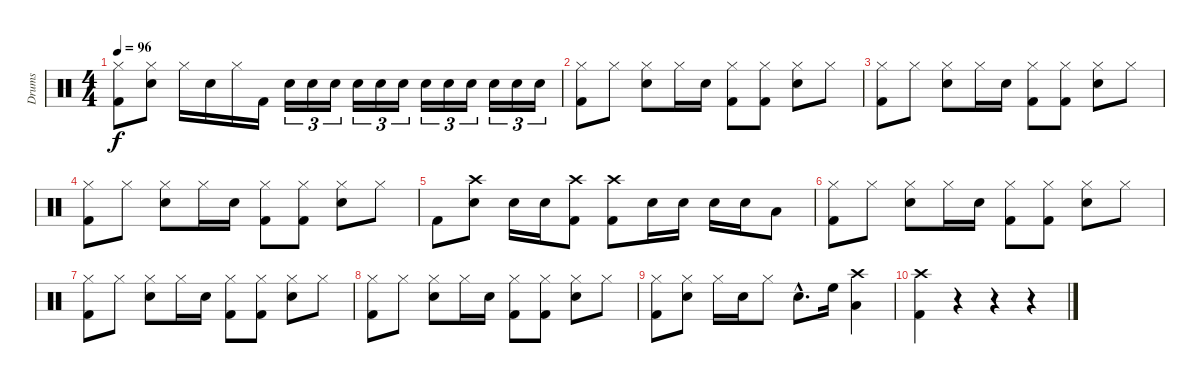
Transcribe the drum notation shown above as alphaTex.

\track ("Drums" "Drums") {instrument percussion}
\staff {score}
\articulation defaults
\ts (4 4)
\tempo 96
\clef neutral
\ks c
("Hi-Hat (closed)" "Kick (hit) 2").8{dy f} ("Hi-Hat (closed)" "Snare (hit) 2").8 "Hi-Hat (closed)".16 "Snare (hit) 2".16 "Hi-Hat (closed)".16 "Kick (hit) 2".16 "Snare (hit) 2".16{tu (3 2)} "Snare (hit) 2".16{tu (3 2)} "Snare (hit) 2".16{tu (3 2)} "Snare (hit) 2".16{tu (3 2)} "Snare (hit) 2".16{tu (3 2)} "Snare (hit) 2".16{tu (3 2)} "Snare (hit) 2".16{tu (3 2)} "Snare (hit) 2".16{tu (3 2)} "Snare (hit) 2".16{tu (3 2)} "Snare (hit) 2".16{tu (3 2)} "Snare (hit) 2".16{tu (3 2)} "Snare (hit) 2".16{tu (3 2)} |
("Hi-Hat (closed)" "Kick (hit) 2").8 "Hi-Hat (closed)".8 ("Hi-Hat (closed)" "Snare (hit) 2").8 "Hi-Hat (closed)".16 "Snare (hit) 2".16 ("Hi-Hat (closed)" "Kick (hit) 2").8 ("Hi-Hat (closed)" "Kick (hit) 2").8 ("Hi-Hat (closed)" "Snare (hit) 2").8 "Hi-Hat (closed)".8 |
("Hi-Hat (closed)" "Kick (hit) 2").8 "Hi-Hat (closed)".8 ("Hi-Hat (closed)" "Snare (hit) 2").8 "Hi-Hat (closed)".16 "Snare (hit) 2".16 ("Hi-Hat (closed)" "Kick (hit) 2").8 ("Hi-Hat (closed)" "Kick (hit) 2").8 ("Hi-Hat (closed)" "Snare (hit) 2").8 "Hi-Hat (closed)".8 |
("Hi-Hat (closed)" "Kick (hit) 2").8 "Hi-Hat (closed)".8 ("Hi-Hat (closed)" "Snare (hit) 2").8 "Hi-Hat (closed)".16 "Snare (hit) 2".16 ("Hi-Hat (closed)" "Kick (hit) 2").8 ("Hi-Hat (closed)" "Kick (hit) 2").8 ("Hi-Hat (closed)" "Snare (hit) 2").8 "Hi-Hat (closed)".8 |
"Kick (hit) 2".8 ("Crash high (hit)" "Snare (hit) 2").8 "Snare (hit) 2".16 "Snare (hit) 2".16 ("Crash high (hit)" "Kick (hit) 2").8 ("Crash high (hit)" "Kick (hit) 2").8 "Snare (hit) 2".16 "Snare (hit) 2".16 "Snare (hit) 2".16 "Snare (hit) 2".16 "Low Tom (hit)".8 |
("Hi-Hat (closed)" "Kick (hit) 2").8 "Hi-Hat (closed)".8 ("Hi-Hat (closed)" "Snare (hit) 2").8 "Hi-Hat (closed)".16 "Snare (hit) 2".16 ("Hi-Hat (closed)" "Kick (hit) 2").8 ("Hi-Hat (closed)" "Kick (hit) 2").8 ("Hi-Hat (closed)" "Snare (hit) 2").8 "Hi-Hat (closed)".8 |
("Hi-Hat (closed)" "Kick (hit) 2").8 "Hi-Hat (closed)".8 ("Hi-Hat (closed)" "Snare (hit) 2").8 "Hi-Hat (closed)".16 "Snare (hit) 2".16 ("Hi-Hat (closed)" "Kick (hit) 2").8 ("Hi-Hat (closed)" "Kick (hit) 2").8 ("Hi-Hat (closed)" "Snare (hit) 2").8 "Hi-Hat (closed)".8 |
("Hi-Hat (closed)" "Kick (hit) 2").8 "Hi-Hat (closed)".8 ("Hi-Hat (closed)" "Snare (hit) 2").8 "Hi-Hat (closed)".16 "Snare (hit) 2".16 ("Hi-Hat (closed)" "Kick (hit) 2").8 ("Hi-Hat (closed)" "Kick (hit) 2").8 ("Hi-Hat (closed)" "Snare (hit) 2").8 "Hi-Hat (closed)".8 |
("Hi-Hat (closed)" "Kick (hit) 2").8 ("Hi-Hat (closed)" "Snare (hit) 2").8 "Hi-Hat (closed)".16 "Snare (hit) 2".16 "Hi-Hat (closed)".8 "Snare (hit) 2"{hac}.8{d} "High Floor Tom (hit)".16 ("Crash high (hit)" "Low Tom (hit)").4 |
("Crash high (hit)" "Kick (hit) 2").4 r.4 r.4 r.4
